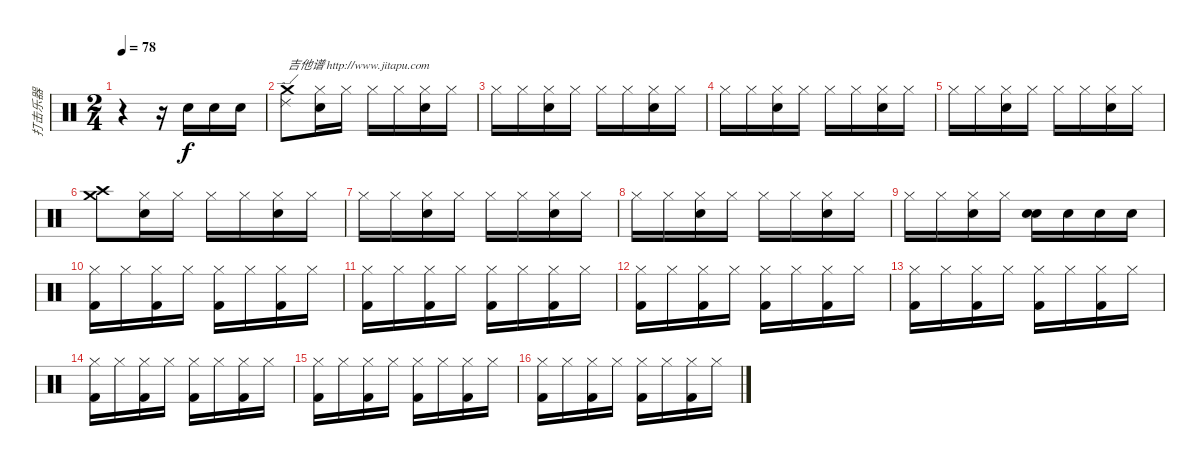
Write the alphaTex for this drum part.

\track ("打击乐器" "打击乐器") {instrument percussion}
\staff {score}
\articulation defaults
\ts (2 4)
\tempo 78
\clef neutral
\ks c
r.4{dy f} r.16 "Electric Snare (hit)".16 "Electric Snare (hit)".16 "Electric Snare (hit)".16 |
("Crash medium (hit)" "Ride (edge) 2").8{txt "吉他谱 http://www.jitapu.com"} ("Hi-Hat (closed)" "Snare (hit) 2").16 "Hi-Hat (closed)".16 "Hi-Hat (closed)".16 "Hi-Hat (closed)".16 ("Hi-Hat (closed)" "Snare (hit) 2").16 "Hi-Hat (closed)".16 |
"Hi-Hat (closed)".16 "Hi-Hat (closed)".16 ("Hi-Hat (closed)" "Snare (hit) 2").16 "Hi-Hat (closed)".16 "Hi-Hat (closed)".16 "Hi-Hat (closed)".16 ("Hi-Hat (closed)" "Snare (hit) 2").16 "Hi-Hat (closed)".16 |
"Hi-Hat (closed)".16 "Hi-Hat (closed)".16 ("Hi-Hat (closed)" "Snare (hit) 2").16 "Hi-Hat (closed)".16 "Hi-Hat (closed)".16 "Hi-Hat (closed)".16 ("Hi-Hat (closed)" "Snare (hit) 2").16 "Hi-Hat (closed)".16 |
"Hi-Hat (closed)".16 "Hi-Hat (closed)".16 ("Hi-Hat (closed)" "Snare (hit) 2").16 "Hi-Hat (closed)".16 "Hi-Hat (closed)".16 "Hi-Hat (closed)".16 ("Hi-Hat (closed)" "Snare (hit) 2").16 "Hi-Hat (closed)".16 |
("Crash medium (hit)" "Crash high (hit)").8 ("Hi-Hat (closed)" "Snare (hit) 2").16 "Hi-Hat (closed)".16 "Hi-Hat (closed)".16 "Hi-Hat (closed)".16 ("Hi-Hat (closed)" "Snare (hit) 2").16 "Hi-Hat (closed)".16 |
"Hi-Hat (closed)".16 "Hi-Hat (closed)".16 ("Hi-Hat (closed)" "Snare (hit) 2").16 "Hi-Hat (closed)".16 "Hi-Hat (closed)".16 "Hi-Hat (closed)".16 ("Hi-Hat (closed)" "Snare (hit) 2").16 "Hi-Hat (closed)".16 |
"Hi-Hat (closed)".16 "Hi-Hat (closed)".16 ("Hi-Hat (closed)" "Snare (hit) 2").16 "Hi-Hat (closed)".16 "Hi-Hat (closed)".16 "Hi-Hat (closed)".16 ("Hi-Hat (closed)" "Snare (hit) 2").16 "Hi-Hat (closed)".16 |
"Hi-Hat (closed)".16 "Hi-Hat (closed)".16 ("Hi-Hat (closed)" "Snare (hit) 2").16 "Hi-Hat (closed)".16 ("Snare (hit) 2" "Electric Snare (hit)").16 "Electric Snare (hit)".16 "Electric Snare (hit)".16 "Electric Snare (hit)".16 |
("Hi-Hat (closed)" "Kick (hit) 2").16 "Hi-Hat (closed)".16 ("Hi-Hat (closed)" "Kick (hit) 2").16 "Hi-Hat (closed)".16 ("Hi-Hat (closed)" "Kick (hit) 2").16 "Hi-Hat (closed)".16 ("Hi-Hat (closed)" "Kick (hit) 2").16 "Hi-Hat (closed)".16 |
("Hi-Hat (closed)" "Kick (hit) 2").16 "Hi-Hat (closed)".16 ("Hi-Hat (closed)" "Kick (hit) 2").16 "Hi-Hat (closed)".16 ("Hi-Hat (closed)" "Kick (hit) 2").16 "Hi-Hat (closed)".16 ("Hi-Hat (closed)" "Kick (hit) 2").16 "Hi-Hat (closed)".16 |
("Hi-Hat (closed)" "Kick (hit) 2").16 "Hi-Hat (closed)".16 ("Hi-Hat (closed)" "Kick (hit) 2").16 "Hi-Hat (closed)".16 ("Hi-Hat (closed)" "Kick (hit) 2").16 "Hi-Hat (closed)".16 ("Hi-Hat (closed)" "Kick (hit) 2").16 "Hi-Hat (closed)".16 |
("Hi-Hat (closed)" "Kick (hit) 2").16 "Hi-Hat (closed)".16 ("Hi-Hat (closed)" "Kick (hit) 2").16 "Hi-Hat (closed)".16 ("Hi-Hat (closed)" "Kick (hit) 2").16 "Hi-Hat (closed)".16 ("Hi-Hat (closed)" "Kick (hit) 2").16 "Hi-Hat (closed)".16 |
("Hi-Hat (closed)" "Kick (hit) 2").16 "Hi-Hat (closed)".16 ("Hi-Hat (closed)" "Kick (hit) 2").16 "Hi-Hat (closed)".16 ("Hi-Hat (closed)" "Kick (hit) 2").16 "Hi-Hat (closed)".16 ("Hi-Hat (closed)" "Kick (hit) 2").16 "Hi-Hat (closed)".16 |
("Hi-Hat (closed)" "Kick (hit) 2").16 "Hi-Hat (closed)".16 ("Hi-Hat (closed)" "Kick (hit) 2").16 "Hi-Hat (closed)".16 ("Hi-Hat (closed)" "Kick (hit) 2").16 "Hi-Hat (closed)".16 ("Hi-Hat (closed)" "Kick (hit) 2").16 "Hi-Hat (closed)".16 |
("Hi-Hat (closed)" "Kick (hit) 2").16 "Hi-Hat (closed)".16 ("Hi-Hat (closed)" "Kick (hit) 2").16 "Hi-Hat (closed)".16 ("Hi-Hat (closed)" "Kick (hit) 2").16 "Hi-Hat (closed)".16 ("Hi-Hat (closed)" "Kick (hit) 2").16 "Hi-Hat (closed)".16
